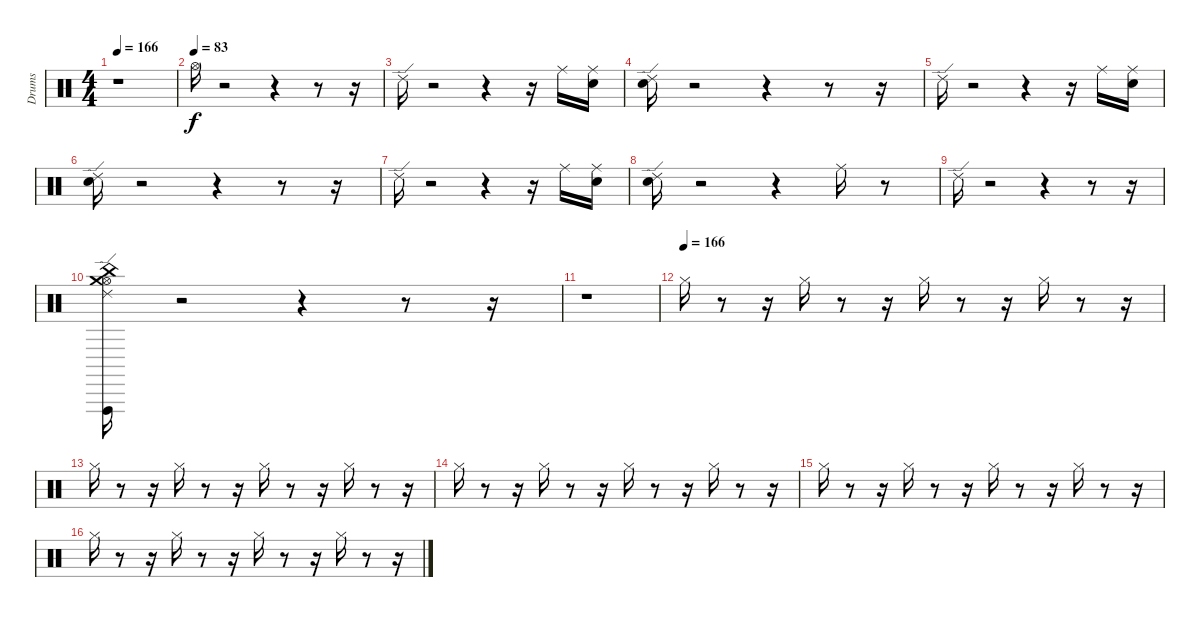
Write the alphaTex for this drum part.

\track ("Drums" "Drums") {instrument percussion}
\staff {score}
\articulation defaults
\ts (4 4)
\tempo 166
\clef neutral
\ks c
r.1{dy f} |
\tempo (83)
"Hi-Hat (open)".16 r.2 r.4 r.8 r.16 |
"Ride (edge) 2".16 r.2 r.4 r.16 "Ride (middle)".16 ("Snare (hit)" "Ride (middle)").16 |
("Snare (hit)" "Ride (edge) 2").16 r.2 r.4 r.8 r.16 |
"Ride (edge) 2".16 r.2 r.4 r.16 "Ride (middle)".16 ("Snare (hit)" "Ride (middle)").16 |
("Snare (hit)" "Ride (edge) 2").16 r.2 r.4 r.8 r.16 |
"Ride (edge) 2".16 r.2 r.4 r.16 "Ride (middle)".16 ("Snare (hit)" "Ride (middle)").16 |
("Snare (hit)" "Ride (edge) 2").16 r.2 r.4 "Ride (middle)".16 r.8 |
"Ride (edge) 2".16 r.2 r.4 r.8 r.16 |
("Vibraslap (hit)" "Ride (edge) 2" "Hi-Hat (open)" "Crash medium (hit)" "China (hit)").16 r.2 r.4 r.8 r.16 |
r.1 |
\tempo (166)
"Hi-Hat (closed)".16 r.8 r.16 "Hi-Hat (closed)".16 r.8 r.16 "Hi-Hat (closed)".16 r.8 r.16 "Hi-Hat (closed)".16 r.8 r.16 |
"Hi-Hat (closed)".16 r.8 r.16 "Hi-Hat (closed)".16 r.8 r.16 "Hi-Hat (closed)".16 r.8 r.16 "Hi-Hat (closed)".16 r.8 r.16 |
"Hi-Hat (closed)".16 r.8 r.16 "Hi-Hat (closed)".16 r.8 r.16 "Hi-Hat (closed)".16 r.8 r.16 "Hi-Hat (closed)".16 r.8 r.16 |
"Hi-Hat (closed)".16 r.8 r.16 "Hi-Hat (closed)".16 r.8 r.16 "Hi-Hat (closed)".16 r.8 r.16 "Hi-Hat (closed)".16 r.8 r.16 |
"Hi-Hat (closed)".16 r.8 r.16 "Hi-Hat (closed)".16 r.8 r.16 "Hi-Hat (closed)".16 r.8 r.16 "Hi-Hat (closed)".16 r.8 r.16
